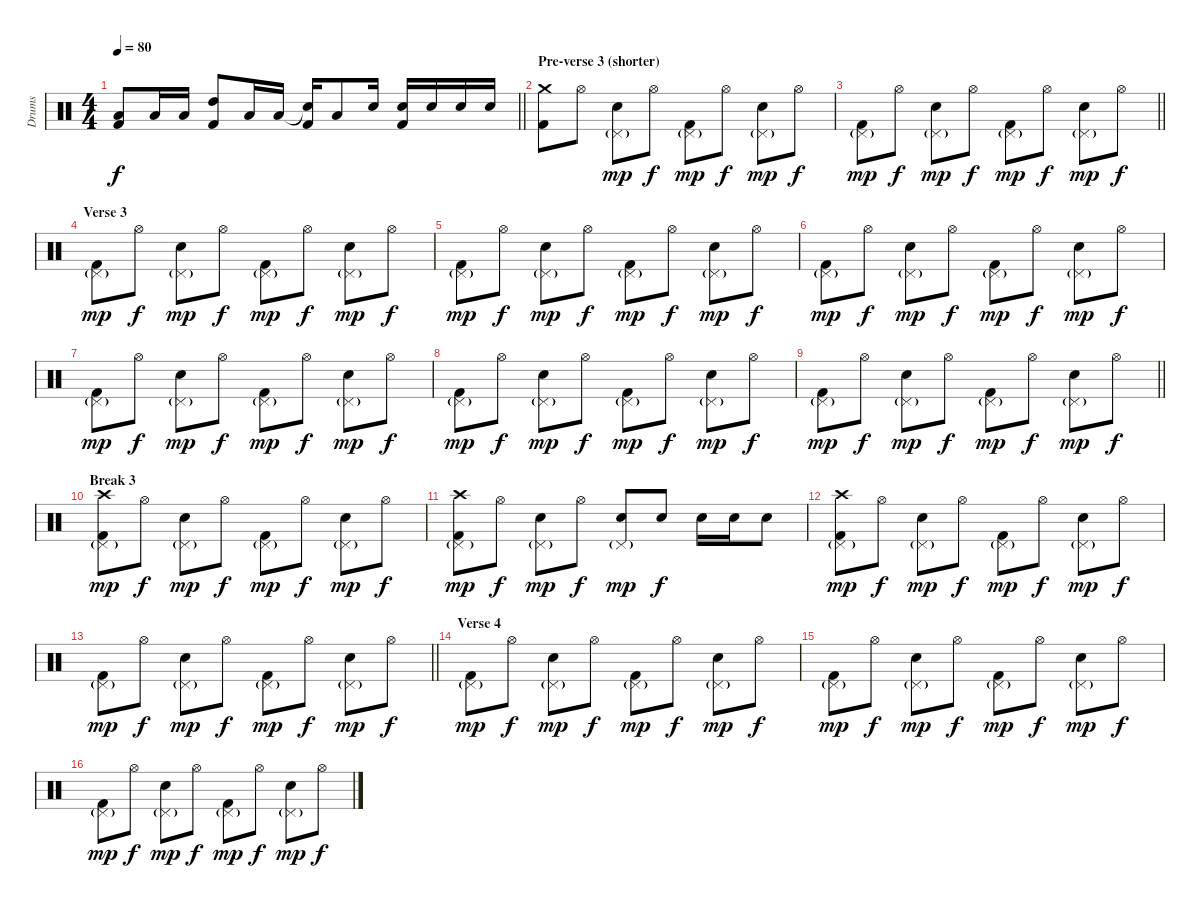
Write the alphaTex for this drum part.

\track ("Drums" "Drums") {solo instrument percussion}
\staff {score}
\articulation defaults
\ts (4 4)
\tempo 80
\clef neutral
\barLineRight lightlight
\ks c
("Low Tom (hit)" "Kick (hit) 2").8{dy f} "Low Tom (hit)".16 "Low Tom (hit)".16 ("High Tom (hit)" "Kick (hit) 2").8 "Low Tom (hit)".16 "Low Tom (hit)".16 ("Snare (hit)"{t} "Kick (hit) 2").16 "Low Tom (hit)".8 "Electric Snare (hit)".16 ("Electric Snare (hit)" "Kick (hit) 2").16 "Electric Snare (hit)".16 "Electric Snare (hit)".16 "Electric Snare (hit)".16 |
\section ("" "Pre-verse 3 (shorter)")
("Crash medium (hit)" "Kick (hit) 2").8 "Hi-Hat (open)".8 ("Pedal Hi-Hat (hit)"{g} "Electric Snare (hit)").8{dy mp} "Hi-Hat (open)".8{dy f} ("Pedal Hi-Hat (hit)"{g} "Kick (hit) 2").8{dy mp} "Hi-Hat (open)".8{dy f} ("Pedal Hi-Hat (hit)"{g} "Electric Snare (hit)").8{dy mp} "Hi-Hat (open)".8{dy f} |
\barLineRight lightlight
("Pedal Hi-Hat (hit)"{g} "Kick (hit) 2").8{dy mp} "Hi-Hat (open)".8{dy f} ("Pedal Hi-Hat (hit)"{g} "Electric Snare (hit)").8{dy mp} "Hi-Hat (open)".8{dy f} ("Pedal Hi-Hat (hit)"{g} "Kick (hit) 2").8{dy mp} "Hi-Hat (open)".8{dy f} ("Pedal Hi-Hat (hit)"{g} "Electric Snare (hit)").8{dy mp} "Hi-Hat (open)".8{dy f} |
\section ("" "Verse 3")
("Pedal Hi-Hat (hit)"{g} "Kick (hit) 2").8{dy mp} "Hi-Hat (open)".8{dy f} ("Pedal Hi-Hat (hit)"{g} "Electric Snare (hit)").8{dy mp} "Hi-Hat (open)".8{dy f} ("Pedal Hi-Hat (hit)"{g} "Kick (hit) 2").8{dy mp} "Hi-Hat (open)".8{dy f} ("Pedal Hi-Hat (hit)"{g} "Electric Snare (hit)").8{dy mp} "Hi-Hat (open)".8{dy f} |
("Pedal Hi-Hat (hit)"{g} "Kick (hit) 2").8{dy mp} "Hi-Hat (open)".8{dy f} ("Pedal Hi-Hat (hit)"{g} "Electric Snare (hit)").8{dy mp} "Hi-Hat (open)".8{dy f} ("Pedal Hi-Hat (hit)"{g} "Kick (hit) 2").8{dy mp} "Hi-Hat (open)".8{dy f} ("Pedal Hi-Hat (hit)"{g} "Electric Snare (hit)").8{dy mp} "Hi-Hat (open)".8{dy f} |
("Pedal Hi-Hat (hit)"{g} "Kick (hit) 2").8{dy mp} "Hi-Hat (open)".8{dy f} ("Pedal Hi-Hat (hit)"{g} "Electric Snare (hit)").8{dy mp} "Hi-Hat (open)".8{dy f} ("Pedal Hi-Hat (hit)"{g} "Kick (hit) 2").8{dy mp} "Hi-Hat (open)".8{dy f} ("Pedal Hi-Hat (hit)"{g} "Electric Snare (hit)").8{dy mp} "Hi-Hat (open)".8{dy f} |
("Pedal Hi-Hat (hit)"{g} "Kick (hit) 2").8{dy mp} "Hi-Hat (open)".8{dy f} ("Pedal Hi-Hat (hit)"{g} "Electric Snare (hit)").8{dy mp} "Hi-Hat (open)".8{dy f} ("Pedal Hi-Hat (hit)"{g} "Kick (hit) 2").8{dy mp} "Hi-Hat (open)".8{dy f} ("Pedal Hi-Hat (hit)"{g} "Electric Snare (hit)").8{dy mp} "Hi-Hat (open)".8{dy f} |
("Pedal Hi-Hat (hit)"{g} "Kick (hit) 2").8{dy mp} "Hi-Hat (open)".8{dy f} ("Pedal Hi-Hat (hit)"{g} "Electric Snare (hit)").8{dy mp} "Hi-Hat (open)".8{dy f} ("Pedal Hi-Hat (hit)"{g} "Kick (hit) 2").8{dy mp} "Hi-Hat (open)".8{dy f} ("Pedal Hi-Hat (hit)"{g} "Electric Snare (hit)").8{dy mp} "Hi-Hat (open)".8{dy f} |
\barLineRight lightlight
("Pedal Hi-Hat (hit)"{g} "Kick (hit) 2").8{dy mp} "Hi-Hat (open)".8{dy f} ("Pedal Hi-Hat (hit)"{g} "Electric Snare (hit)").8{dy mp} "Hi-Hat (open)".8{dy f} ("Pedal Hi-Hat (hit)"{g} "Kick (hit) 2").8{dy mp} "Hi-Hat (open)".8{dy f} ("Pedal Hi-Hat (hit)"{g} "Electric Snare (hit)").8{dy mp} "Hi-Hat (open)".8{dy f} |
\section ("" "Break 3")
("Pedal Hi-Hat (hit)"{g} "Crash high (hit)" "Kick (hit) 2").8{dy mp} "Hi-Hat (open)".8{dy f} ("Pedal Hi-Hat (hit)"{g} "Electric Snare (hit)").8{dy mp} "Hi-Hat (open)".8{dy f} ("Pedal Hi-Hat (hit)"{g} "Kick (hit) 2").8{dy mp} "Hi-Hat (open)".8{dy f} ("Pedal Hi-Hat (hit)"{g} "Electric Snare (hit)").8{dy mp} "Hi-Hat (open)".8{dy f} |
("Pedal Hi-Hat (hit)"{g} "Crash high (hit)" "Kick (hit) 2").8{dy mp} "Hi-Hat (open)".8{dy f} ("Pedal Hi-Hat (hit)"{g} "Electric Snare (hit)").8{dy mp} "Hi-Hat (open)".8{dy f} ("Pedal Hi-Hat (hit)"{g} "Electric Snare (hit)").8{dy mp} "Electric Snare (hit)".8{dy f} "Electric Snare (hit)".16 "Electric Snare (hit)".16 "Electric Snare (hit)".8 |
("Pedal Hi-Hat (hit)"{g} "Crash high (hit)" "Kick (hit) 2").8{dy mp} "Hi-Hat (open)".8{dy f} ("Pedal Hi-Hat (hit)"{g} "Electric Snare (hit)").8{dy mp} "Hi-Hat (open)".8{dy f} ("Pedal Hi-Hat (hit)"{g} "Kick (hit) 2").8{dy mp} "Hi-Hat (open)".8{dy f} ("Pedal Hi-Hat (hit)"{g} "Electric Snare (hit)").8{dy mp} "Hi-Hat (open)".8{dy f} |
\barLineRight lightlight
("Pedal Hi-Hat (hit)"{g} "Kick (hit) 2").8{dy mp} "Hi-Hat (open)".8{dy f} ("Pedal Hi-Hat (hit)"{g} "Electric Snare (hit)").8{dy mp} "Hi-Hat (open)".8{dy f} ("Pedal Hi-Hat (hit)"{g} "Kick (hit) 2").8{dy mp} "Hi-Hat (open)".8{dy f} ("Pedal Hi-Hat (hit)"{g} "Electric Snare (hit)").8{dy mp} "Hi-Hat (open)".8{dy f} |
\section ("" "Verse 4")
("Pedal Hi-Hat (hit)"{g} "Kick (hit) 2").8{dy mp} "Hi-Hat (open)".8{dy f} ("Pedal Hi-Hat (hit)"{g} "Electric Snare (hit)").8{dy mp} "Hi-Hat (open)".8{dy f} ("Pedal Hi-Hat (hit)"{g} "Kick (hit) 2").8{dy mp} "Hi-Hat (open)".8{dy f} ("Pedal Hi-Hat (hit)"{g} "Electric Snare (hit)").8{dy mp} "Hi-Hat (open)".8{dy f} |
("Pedal Hi-Hat (hit)"{g} "Kick (hit) 2").8{dy mp} "Hi-Hat (open)".8{dy f} ("Pedal Hi-Hat (hit)"{g} "Electric Snare (hit)").8{dy mp} "Hi-Hat (open)".8{dy f} ("Pedal Hi-Hat (hit)"{g} "Kick (hit) 2").8{dy mp} "Hi-Hat (open)".8{dy f} ("Pedal Hi-Hat (hit)"{g} "Electric Snare (hit)").8{dy mp} "Hi-Hat (open)".8{dy f} |
("Pedal Hi-Hat (hit)"{g} "Kick (hit) 2").8{dy mp} "Hi-Hat (open)".8{dy f} ("Pedal Hi-Hat (hit)"{g} "Electric Snare (hit)").8{dy mp} "Hi-Hat (open)".8{dy f} ("Pedal Hi-Hat (hit)"{g} "Kick (hit) 2").8{dy mp} "Hi-Hat (open)".8{dy f} ("Pedal Hi-Hat (hit)"{g} "Electric Snare (hit)").8{dy mp} "Hi-Hat (open)".8{dy f}
